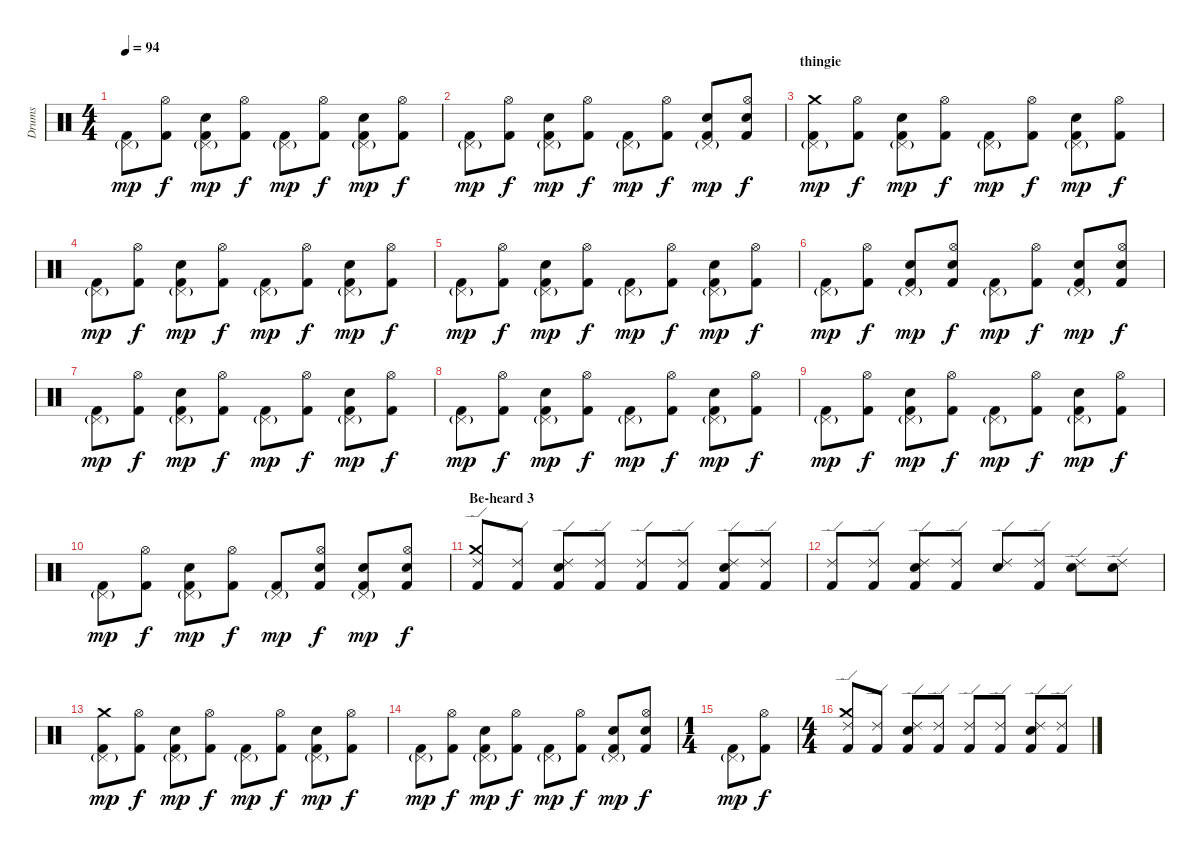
\track ("Drums" "Drums") {instrument percussion}
\staff {score}
\articulation defaults
\ts (4 4)
\tempo 94
\clef neutral
\ks c
("Pedal Hi-Hat (hit)"{g} "Kick (hit) 2").8{dy mp} ("Hi-Hat (open)" "Kick (hit) 2").8{dy f} ("Pedal Hi-Hat (hit)"{g} "Snare (hit) 2" "Kick (hit) 2").8{dy mp} ("Hi-Hat (open)" "Kick (hit) 2").8{dy f} ("Pedal Hi-Hat (hit)"{g} "Kick (hit) 2").8{dy mp} ("Hi-Hat (open)" "Kick (hit) 2").8{dy f} ("Pedal Hi-Hat (hit)"{g} "Snare (hit) 2" "Kick (hit) 2").8{dy mp} ("Hi-Hat (open)" "Kick (hit) 2").8{dy f} |
("Pedal Hi-Hat (hit)"{g} "Kick (hit) 2").8{dy mp} ("Hi-Hat (open)" "Kick (hit) 2").8{dy f} ("Pedal Hi-Hat (hit)"{g} "Snare (hit) 2" "Kick (hit) 2").8{dy mp} ("Hi-Hat (open)" "Kick (hit) 2").8{dy f} ("Pedal Hi-Hat (hit)"{g} "Kick (hit) 2").8{dy mp} ("Hi-Hat (open)" "Kick (hit) 2").8{dy f} ("Pedal Hi-Hat (hit)"{g} "Snare (hit) 2" "Kick (hit) 2").8{dy mp} ("Hi-Hat (open)" "Snare (hit) 2" "Kick (hit) 2").8{dy f} |
\section ("" "thingie")
("Pedal Hi-Hat (hit)"{g} "Crash medium (hit)" "Kick (hit) 2").8{dy mp} ("Hi-Hat (open)" "Kick (hit) 2").8{dy f} ("Pedal Hi-Hat (hit)"{g} "Snare (hit) 2" "Kick (hit) 2").8{dy mp} ("Hi-Hat (open)" "Kick (hit) 2").8{dy f} ("Pedal Hi-Hat (hit)"{g} "Kick (hit) 2").8{dy mp} ("Hi-Hat (open)" "Kick (hit) 2").8{dy f} ("Pedal Hi-Hat (hit)"{g} "Snare (hit) 2" "Kick (hit) 2").8{dy mp} ("Hi-Hat (open)" "Kick (hit) 2").8{dy f} |
("Pedal Hi-Hat (hit)"{g} "Kick (hit) 2").8{dy mp} ("Hi-Hat (open)" "Kick (hit) 2").8{dy f} ("Pedal Hi-Hat (hit)"{g} "Snare (hit) 2" "Kick (hit) 2").8{dy mp} ("Hi-Hat (open)" "Kick (hit) 2").8{dy f} ("Pedal Hi-Hat (hit)"{g} "Kick (hit) 2").8{dy mp} ("Hi-Hat (open)" "Kick (hit) 2").8{dy f} ("Pedal Hi-Hat (hit)"{g} "Snare (hit) 2" "Kick (hit) 2").8{dy mp} ("Hi-Hat (open)" "Kick (hit) 2").8{dy f} |
("Pedal Hi-Hat (hit)"{g} "Kick (hit) 2").8{dy mp} ("Hi-Hat (open)" "Kick (hit) 2").8{dy f} ("Pedal Hi-Hat (hit)"{g} "Snare (hit) 2" "Kick (hit) 2").8{dy mp} ("Hi-Hat (open)" "Kick (hit) 2").8{dy f} ("Pedal Hi-Hat (hit)"{g} "Kick (hit) 2").8{dy mp} ("Hi-Hat (open)" "Kick (hit) 2").8{dy f} ("Pedal Hi-Hat (hit)"{g} "Snare (hit) 2" "Kick (hit) 2").8{dy mp} ("Hi-Hat (open)" "Kick (hit) 2").8{dy f} |
("Pedal Hi-Hat (hit)"{g} "Kick (hit) 2").8{dy mp} ("Hi-Hat (open)" "Kick (hit) 2").8{dy f} ("Pedal Hi-Hat (hit)"{g} "Snare (hit) 2" "Kick (hit) 2").8{dy mp} ("Hi-Hat (open)" "Snare (hit) 2" "Kick (hit) 2").8{dy f} ("Pedal Hi-Hat (hit)"{g} "Kick (hit) 2").8{dy mp} ("Hi-Hat (open)" "Kick (hit) 2").8{dy f} ("Pedal Hi-Hat (hit)"{g} "Snare (hit) 2" "Kick (hit) 2").8{dy mp} ("Hi-Hat (open)" "Snare (hit) 2" "Kick (hit) 2").8{dy f} |
("Pedal Hi-Hat (hit)"{g} "Kick (hit) 2").8{dy mp} ("Hi-Hat (open)" "Kick (hit) 2").8{dy f} ("Pedal Hi-Hat (hit)"{g} "Snare (hit) 2" "Kick (hit) 2").8{dy mp} ("Hi-Hat (open)" "Kick (hit) 2").8{dy f} ("Pedal Hi-Hat (hit)"{g} "Kick (hit) 2").8{dy mp} ("Hi-Hat (open)" "Kick (hit) 2").8{dy f} ("Pedal Hi-Hat (hit)"{g} "Snare (hit) 2" "Kick (hit) 2").8{dy mp} ("Hi-Hat (open)" "Kick (hit) 2").8{dy f} |
("Pedal Hi-Hat (hit)"{g} "Kick (hit) 2").8{dy mp} ("Hi-Hat (open)" "Kick (hit) 2").8{dy f} ("Pedal Hi-Hat (hit)"{g} "Snare (hit) 2" "Kick (hit) 2").8{dy mp} ("Hi-Hat (open)" "Kick (hit) 2").8{dy f} ("Pedal Hi-Hat (hit)"{g} "Kick (hit) 2").8{dy mp} ("Hi-Hat (open)" "Kick (hit) 2").8{dy f} ("Pedal Hi-Hat (hit)"{g} "Snare (hit) 2" "Kick (hit) 2").8{dy mp} ("Hi-Hat (open)" "Kick (hit) 2").8{dy f} |
("Pedal Hi-Hat (hit)"{g} "Kick (hit) 2").8{dy mp} ("Hi-Hat (open)" "Kick (hit) 2").8{dy f} ("Pedal Hi-Hat (hit)"{g} "Snare (hit) 2" "Kick (hit) 2").8{dy mp} ("Hi-Hat (open)" "Kick (hit) 2").8{dy f} ("Pedal Hi-Hat (hit)"{g} "Kick (hit) 2").8{dy mp} ("Hi-Hat (open)" "Kick (hit) 2").8{dy f} ("Pedal Hi-Hat (hit)"{g} "Snare (hit) 2" "Kick (hit) 2").8{dy mp} ("Hi-Hat (open)" "Kick (hit) 2").8{dy f} |
("Pedal Hi-Hat (hit)"{g} "Kick (hit) 2").8{dy mp} ("Hi-Hat (open)" "Kick (hit) 2").8{dy f} ("Pedal Hi-Hat (hit)"{g} "Snare (hit) 2" "Kick (hit) 2").8{dy mp} ("Hi-Hat (open)" "Kick (hit) 2").8{dy f} ("Pedal Hi-Hat (hit)"{g} "Kick (hit) 2").8{dy mp} ("Hi-Hat (open)" "Snare (hit) 2" "Kick (hit) 2").8{dy f} ("Pedal Hi-Hat (hit)"{g} "Snare (hit) 2" "Kick (hit) 2").8{dy mp} ("Hi-Hat (open)" "Snare (hit) 2" "Kick (hit) 2").8{dy f} |
\section ("" "Be-heard 3")
("Ride (edge) 2" "Crash medium (hit)" "Kick (hit) 2").8 ("Ride (edge) 2" "Kick (hit) 2").8 ("Ride (edge) 2" "Snare (hit) 2" "Kick (hit) 2").8 ("Ride (edge) 2" "Kick (hit) 2").8 ("Ride (edge) 2" "Kick (hit) 2").8 ("Ride (edge) 2" "Kick (hit) 2").8 ("Ride (edge) 2" "Snare (hit) 2" "Kick (hit) 2").8 ("Ride (edge) 2" "Kick (hit) 2").8 |
("Ride (edge) 2" "Kick (hit) 2").8 ("Ride (edge) 2" "Kick (hit) 2").8 ("Ride (edge) 2" "Snare (hit) 2" "Kick (hit) 2").8 ("Ride (edge) 2" "Kick (hit) 2").8 ("Ride (edge) 2" "Snare (hit) 2").8 ("Ride (edge) 2" "Kick (hit) 2").8 ("Ride (edge) 2" "Snare (hit) 2").8 ("Ride (edge) 2" "Snare (hit) 2").8 |
("Pedal Hi-Hat (hit)"{g} "Crash medium (hit)" "Kick (hit) 2").8{dy mp} ("Hi-Hat (open)" "Kick (hit) 2").8{dy f} ("Pedal Hi-Hat (hit)"{g} "Snare (hit) 2" "Kick (hit) 2").8{dy mp} ("Hi-Hat (open)" "Kick (hit) 2").8{dy f} ("Pedal Hi-Hat (hit)"{g} "Kick (hit) 2").8{dy mp} ("Hi-Hat (open)" "Kick (hit) 2").8{dy f} ("Pedal Hi-Hat (hit)"{g} "Snare (hit) 2" "Kick (hit) 2").8{dy mp} ("Hi-Hat (open)" "Kick (hit) 2").8{dy f} |
("Pedal Hi-Hat (hit)"{g} "Kick (hit) 2").8{dy mp} ("Hi-Hat (open)" "Kick (hit) 2").8{dy f} ("Pedal Hi-Hat (hit)"{g} "Snare (hit) 2" "Kick (hit) 2").8{dy mp} ("Hi-Hat (open)" "Kick (hit) 2").8{dy f} ("Pedal Hi-Hat (hit)"{g} "Kick (hit) 2").8{dy mp} ("Hi-Hat (open)" "Kick (hit) 2").8{dy f} ("Pedal Hi-Hat (hit)"{g} "Snare (hit) 2" "Kick (hit) 2").8{dy mp} ("Hi-Hat (open)" "Snare (hit) 2" "Kick (hit) 2").8{dy f} |
\ts (1 4)
("Pedal Hi-Hat (hit)"{g} "Kick (hit) 2").8{dy mp} ("Hi-Hat (open)" "Kick (hit) 2").8{dy f} |
\ts (4 4)
("Ride (edge) 2" "Crash medium (hit)" "Kick (hit) 2").8 ("Ride (edge) 2" "Kick (hit) 2").8 ("Ride (edge) 2" "Snare (hit) 2" "Kick (hit) 2").8 ("Ride (edge) 2" "Kick (hit) 2").8 ("Ride (edge) 2" "Kick (hit) 2").8 ("Ride (edge) 2" "Kick (hit) 2").8 ("Ride (edge) 2" "Snare (hit) 2" "Kick (hit) 2").8 ("Ride (edge) 2" "Kick (hit) 2").8
